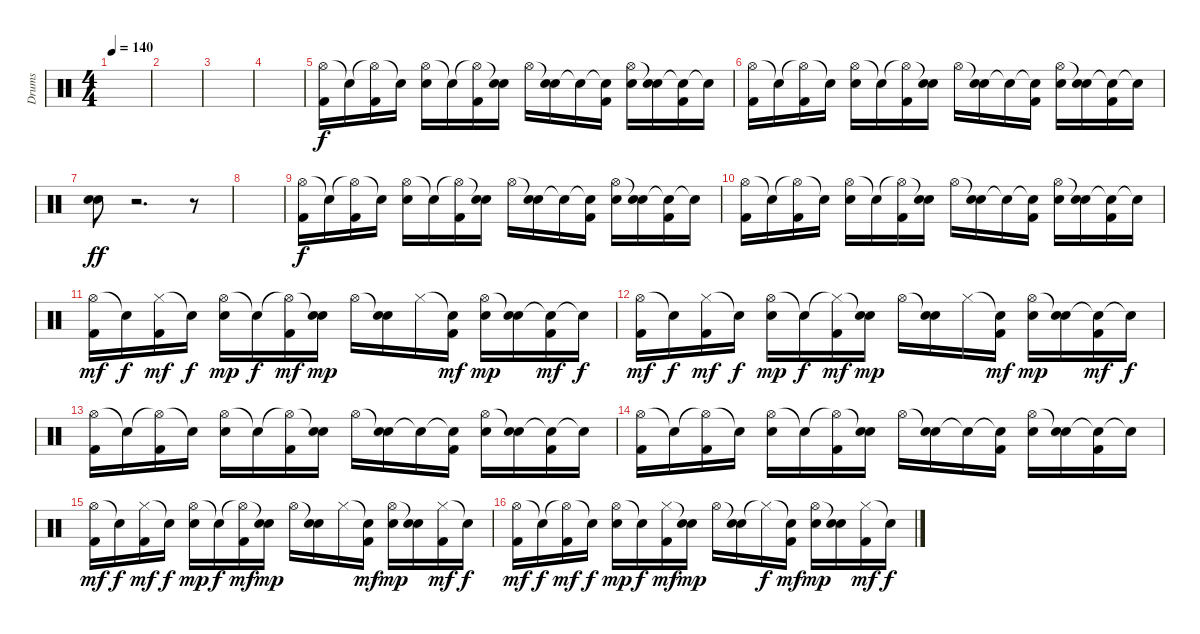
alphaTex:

\track ("Drums" "Drums") {instrument percussion}
\staff {score}
\articulation defaults
\ts (4 4)
\tempo 140
\clef neutral
\ks c
|
|
|
|
("Hi-Hat (open)" "Kick (hit) 2").16 "Snare (hit)"{t}.16 ("Hi-Hat (open)"{t} "Kick (hit) 2").16 "Snare (hit)"{t}.16 ("Hi-Hat (open)" "Electric Snare (hit)").16 "Snare (hit)"{t}.16 ("Hi-Hat (open)"{t} "Kick (hit) 2").16 ("Snare (hit)"{t} "Electric Snare (hit)").16 "Hi-Hat (open)".16 ("Snare (hit)"{t} "Electric Snare (hit)").16 "Snare (hit)"{t}.16 ("Snare (hit)"{t} "Kick (hit) 2").16 ("Hi-Hat (open)" "Electric Snare (hit)").16 ("Snare (hit)"{t} "Electric Snare (hit)").16 ("Snare (hit)"{t} "Kick (hit) 2").16 "Snare (hit)"{t}.16 |
("Hi-Hat (open)" "Kick (hit) 2").16 "Snare (hit)"{t}.16 ("Hi-Hat (open)"{t} "Kick (hit) 2").16 "Snare (hit)"{t}.16 ("Hi-Hat (open)" "Electric Snare (hit)").16 "Snare (hit)"{t}.16 ("Hi-Hat (open)"{t} "Kick (hit) 2").16 ("Snare (hit)"{t} "Electric Snare (hit)").16 "Hi-Hat (open)".16 ("Snare (hit)"{t} "Electric Snare (hit)").16 "Snare (hit)"{t}.16 ("Snare (hit)"{t} "Kick (hit) 2").16 ("Hi-Hat (open)" "Electric Snare (hit)").16 ("Snare (hit)"{t} "Electric Snare (hit)").16 ("Snare (hit)"{t} "Kick (hit) 2").16 "Snare (hit)"{t}.16 |
("Electric Snare (hit)" "Electric Snare (hit)").8{dy ff} r.2{d} r.8 |
|
("Hi-Hat (open)" "Kick (hit) 2").16{dy f} "Snare (hit)"{t}.16 ("Hi-Hat (open)"{t} "Kick (hit) 2").16 "Snare (hit)"{t}.16 ("Hi-Hat (open)" "Electric Snare (hit)").16 "Snare (hit)"{t}.16 ("Hi-Hat (open)"{t} "Kick (hit) 2").16 ("Snare (hit)"{t} "Electric Snare (hit)").16 "Hi-Hat (open)".16 ("Snare (hit)"{t} "Electric Snare (hit)").16 "Snare (hit)"{t}.16 ("Snare (hit)"{t} "Kick (hit) 2").16 ("Hi-Hat (open)" "Electric Snare (hit)").16 ("Snare (hit)"{t} "Electric Snare (hit)").16 ("Snare (hit)"{t} "Kick (hit) 2").16 "Snare (hit)"{t}.16 |
("Hi-Hat (open)" "Kick (hit) 2").16 "Snare (hit)"{t}.16 ("Hi-Hat (open)"{t} "Kick (hit) 2").16 "Snare (hit)"{t}.16 ("Hi-Hat (open)" "Electric Snare (hit)").16 "Snare (hit)"{t}.16 ("Hi-Hat (open)"{t} "Kick (hit) 2").16 ("Snare (hit)"{t} "Electric Snare (hit)").16 "Hi-Hat (open)".16 ("Snare (hit)"{t} "Electric Snare (hit)").16 "Snare (hit)"{t}.16 ("Snare (hit)"{t} "Kick (hit) 2").16 ("Hi-Hat (open)" "Electric Snare (hit)").16 ("Snare (hit)"{t} "Electric Snare (hit)").16 ("Snare (hit)"{t} "Kick (hit) 2").16 "Snare (hit)"{t}.16 |
("Hi-Hat (open)" "Kick (hit) 2").16{dy mf} "Snare (hit)"{t}.16{dy f} ("Hi-Hat (closed)" "Kick (hit) 2").16{dy mf} "Snare (hit)"{t}.16{dy f} ("Hi-Hat (open)" "Electric Snare (hit)").16{dy mp} "Snare (hit)"{t}.16{dy f} ("Hi-Hat (open)"{t} "Kick (hit) 2").16{dy mf} ("Snare (hit)"{t} "Electric Snare (hit)").16{dy mp} "Hi-Hat (open)".16 ("Snare (hit)"{t} "Electric Snare (hit)").16 "Hi-Hat (closed)".16 ("Snare (hit)"{t} "Kick (hit) 2").16{dy mf} ("Hi-Hat (open)" "Electric Snare (hit)").16{dy mp} ("Snare (hit)"{t} "Electric Snare (hit)").16 ("Snare (hit)"{t} "Kick (hit) 2").16{dy mf} "Snare (hit)"{t}.16{dy f} |
("Hi-Hat (open)" "Kick (hit) 2").16{dy mf} "Snare (hit)"{t}.16{dy f} ("Hi-Hat (closed)" "Kick (hit) 2").16{dy mf} "Snare (hit)"{t}.16{dy f} ("Hi-Hat (open)" "Electric Snare (hit)").16{dy mp} "Snare (hit)"{t}.16{dy f} ("Hi-Hat (closed)"{t} "Kick (hit) 2").16{dy mf} ("Snare (hit)"{t} "Electric Snare (hit)").16{dy mp} "Hi-Hat (open)".16 ("Snare (hit)"{t} "Electric Snare (hit)").16 "Hi-Hat (closed)".16 ("Snare (hit)"{t} "Kick (hit) 2").16{dy mf} ("Hi-Hat (open)" "Electric Snare (hit)").16{dy mp} ("Snare (hit)"{t} "Electric Snare (hit)").16 ("Snare (hit)"{t} "Kick (hit) 2").16{dy mf} "Snare (hit)"{t}.16{dy f} |
("Hi-Hat (open)" "Kick (hit) 2").16 "Snare (hit)"{t}.16 ("Hi-Hat (open)"{t} "Kick (hit) 2").16 "Snare (hit)"{t}.16 ("Hi-Hat (open)" "Electric Snare (hit)").16 "Snare (hit)"{t}.16 ("Hi-Hat (open)"{t} "Kick (hit) 2").16 ("Snare (hit)"{t} "Electric Snare (hit)").16 "Hi-Hat (open)".16 ("Snare (hit)"{t} "Electric Snare (hit)").16 "Snare (hit)"{t}.16 ("Snare (hit)"{t} "Kick (hit) 2").16 ("Hi-Hat (open)" "Electric Snare (hit)").16 ("Snare (hit)"{t} "Electric Snare (hit)").16 ("Snare (hit)"{t} "Kick (hit) 2").16 "Snare (hit)"{t}.16 |
("Hi-Hat (open)" "Kick (hit) 2").16 "Snare (hit)"{t}.16 ("Hi-Hat (open)"{t} "Kick (hit) 2").16 "Snare (hit)"{t}.16 ("Hi-Hat (open)" "Electric Snare (hit)").16 "Snare (hit)"{t}.16 ("Hi-Hat (open)"{t} "Kick (hit) 2").16 ("Snare (hit)"{t} "Electric Snare (hit)").16 "Hi-Hat (open)".16 ("Snare (hit)"{t} "Electric Snare (hit)").16 "Snare (hit)"{t}.16 ("Snare (hit)"{t} "Kick (hit) 2").16 ("Hi-Hat (open)" "Electric Snare (hit)").16 ("Snare (hit)"{t} "Electric Snare (hit)").16 ("Snare (hit)"{t} "Kick (hit) 2").16 "Snare (hit)"{t}.16 |
("Hi-Hat (open)" "Kick (hit) 2").16{dy mf} "Snare (hit)"{t}.16{dy f} ("Hi-Hat (closed)" "Kick (hit) 2").16{dy mf} "Snare (hit)"{t}.16{dy f} ("Hi-Hat (open)" "Electric Snare (hit)").16{dy mp} "Snare (hit)"{t}.16{dy f} ("Hi-Hat (open)"{t} "Kick (hit) 2").16{dy mf} ("Snare (hit)"{t} "Electric Snare (hit)").16{dy mp} "Hi-Hat (open)".16 ("Snare (hit)"{t} "Electric Snare (hit)").16 "Hi-Hat (closed)".16 ("Snare (hit)"{t} "Kick (hit) 2").16{dy mf} ("Hi-Hat (open)" "Electric Snare (hit)").16{dy mp} ("Snare (hit)"{t} "Electric Snare (hit)").16 ("Hi-Hat (closed)" "Kick (hit) 2").16{dy mf} "Snare (hit)"{t}.16{dy f} |
("Hi-Hat (open)" "Kick (hit) 2").16{dy mf} "Snare (hit)"{t}.16{dy f} ("Hi-Hat (open)"{t} "Kick (hit) 2").16{dy mf} "Snare (hit)"{t}.16{dy f} ("Hi-Hat (open)" "Electric Snare (hit)").16{dy mp} "Snare (hit)"{t}.16{dy f} ("Hi-Hat (closed)" "Kick (hit) 2").16{dy mf} ("Snare (hit)"{t} "Electric Snare (hit)").16{dy mp} "Hi-Hat (open)".16 ("Snare (hit)"{t} "Electric Snare (hit)").16 "Hi-Hat (closed)"{t}.16{dy f} ("Snare (hit)"{t} "Kick (hit) 2").16{dy mf} ("Hi-Hat (open)" "Electric Snare (hit)").16{dy mp} ("Snare (hit)"{t} "Electric Snare (hit)").16 ("Hi-Hat (closed)" "Kick (hit) 2").16{dy mf} "Snare (hit)"{t}.16{dy f}
